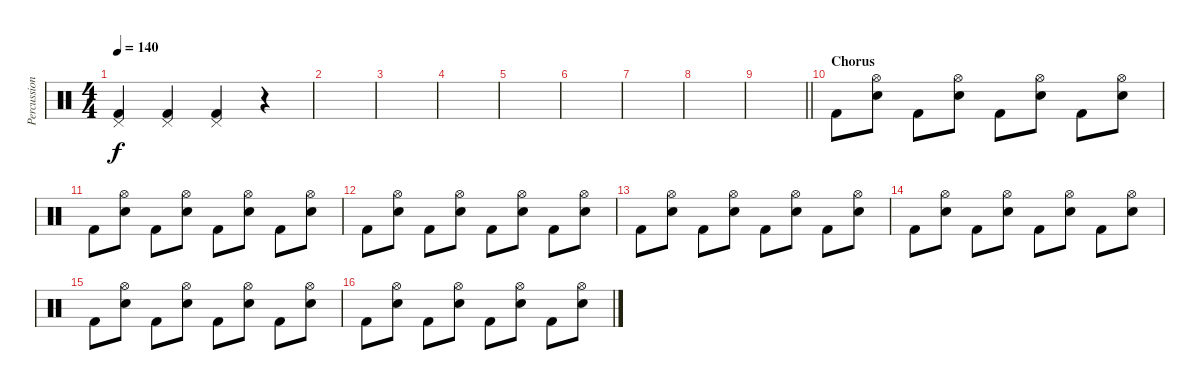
\track ("Percussion" "Percussion") {instrument percussion}
\staff {score}
\articulation defaults
\ts (4 4)
\tempo 140
\clef neutral
\ks c
("Pedal Hi-Hat (hit)" "Kick (hit) 2").4{dy f} ("Pedal Hi-Hat (hit)" "Kick (hit) 2").4 ("Pedal Hi-Hat (hit)" "Kick (hit) 2").4 r.4 |
|
|
|
|
|
|
|
\barLineRight lightlight
|
\section ("" "Chorus")
"Kick (hit) 2".8 ("Hi-Hat (open)" "Hand Clap (hit)").8 "Kick (hit) 2".8 ("Hi-Hat (open)" "Hand Clap (hit)").8 "Kick (hit) 2".8 ("Hi-Hat (open)" "Hand Clap (hit)").8 "Kick (hit) 2".8 ("Hi-Hat (open)" "Hand Clap (hit)").8 |
"Kick (hit) 2".8 ("Hi-Hat (open)" "Hand Clap (hit)").8 "Kick (hit) 2".8 ("Hi-Hat (open)" "Hand Clap (hit)").8 "Kick (hit) 2".8 ("Hi-Hat (open)" "Hand Clap (hit)").8 "Kick (hit) 2".8 ("Hi-Hat (open)" "Hand Clap (hit)").8 |
"Kick (hit) 2".8 ("Hi-Hat (open)" "Hand Clap (hit)").8 "Kick (hit) 2".8 ("Hi-Hat (open)" "Hand Clap (hit)").8 "Kick (hit) 2".8 ("Hi-Hat (open)" "Hand Clap (hit)").8 "Kick (hit) 2".8 ("Hi-Hat (open)" "Hand Clap (hit)").8 |
"Kick (hit) 2".8 ("Hi-Hat (open)" "Hand Clap (hit)").8 "Kick (hit) 2".8 ("Hi-Hat (open)" "Hand Clap (hit)").8 "Kick (hit) 2".8 ("Hi-Hat (open)" "Hand Clap (hit)").8 "Kick (hit) 2".8 ("Hi-Hat (open)" "Hand Clap (hit)").8 |
"Kick (hit) 2".8 ("Hi-Hat (open)" "Hand Clap (hit)").8 "Kick (hit) 2".8 ("Hi-Hat (open)" "Hand Clap (hit)").8 "Kick (hit) 2".8 ("Hi-Hat (open)" "Hand Clap (hit)").8 "Kick (hit) 2".8 ("Hi-Hat (open)" "Hand Clap (hit)").8 |
"Kick (hit) 2".8 ("Hi-Hat (open)" "Hand Clap (hit)").8 "Kick (hit) 2".8 ("Hi-Hat (open)" "Hand Clap (hit)").8 "Kick (hit) 2".8 ("Hi-Hat (open)" "Hand Clap (hit)").8 "Kick (hit) 2".8 ("Hi-Hat (open)" "Hand Clap (hit)").8 |
"Kick (hit) 2".8 ("Hi-Hat (open)" "Hand Clap (hit)").8 "Kick (hit) 2".8 ("Hi-Hat (open)" "Hand Clap (hit)").8 "Kick (hit) 2".8 ("Hi-Hat (open)" "Hand Clap (hit)").8 "Kick (hit) 2".8 ("Hi-Hat (open)" "Hand Clap (hit)").8
